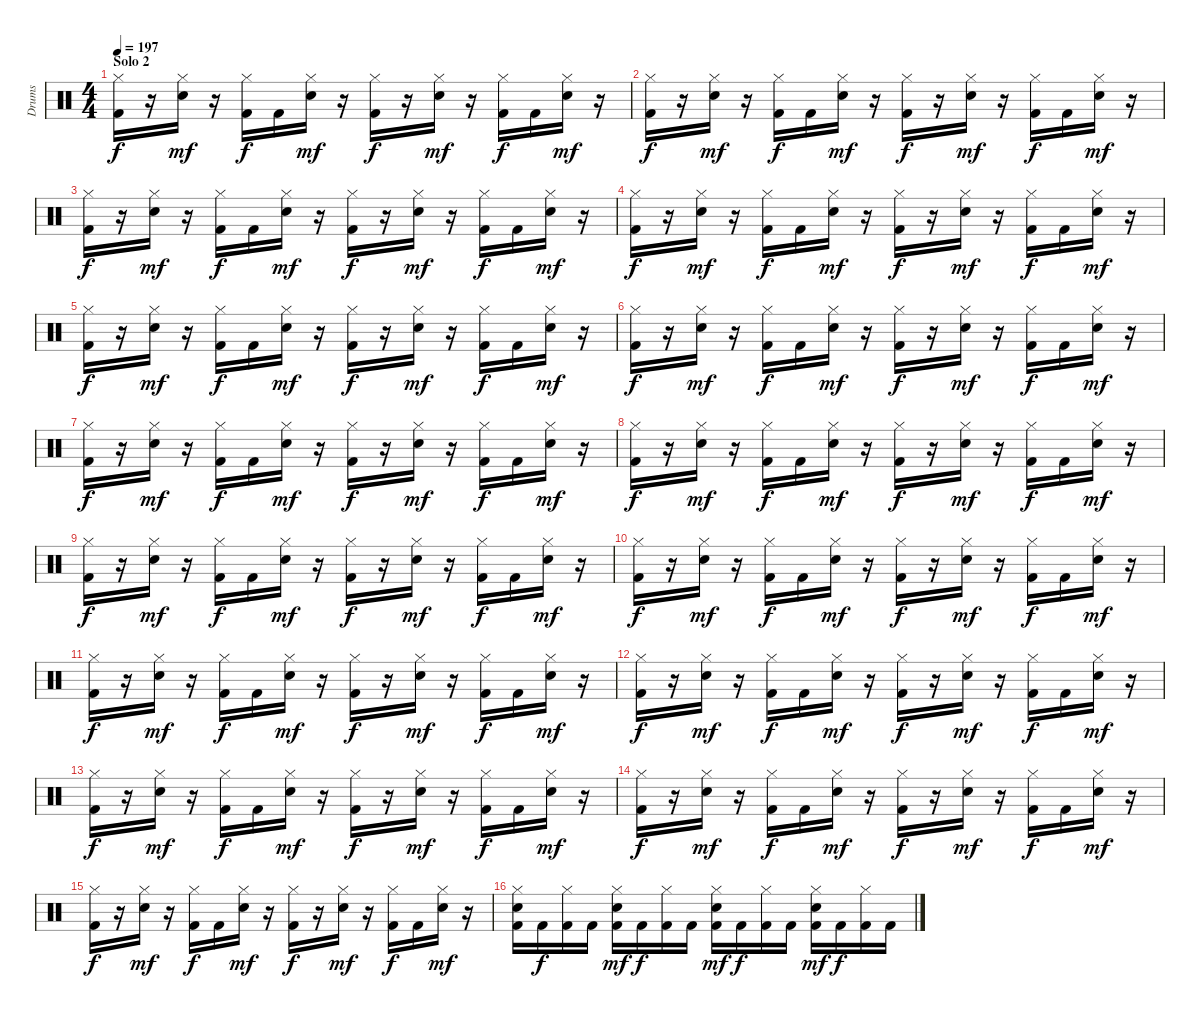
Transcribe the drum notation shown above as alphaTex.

\track ("Drums" "Drums") {instrument percussion}
\staff {score}
\articulation defaults
\ts (4 4)
\section ("" "Solo 2")
\tempo 197
\clef neutral
\ks c
("Kick (hit) 2" "Hi-Hat (closed)").16{dy f} r.16 ("Snare (hit) 2" "Hi-Hat (closed)").16{dy mf} r.16 ("Kick (hit) 2" "Hi-Hat (closed)").16{dy f} "Kick (hit) 2".16 ("Snare (hit) 2" "Hi-Hat (closed)").16{dy mf} r.16 ("Kick (hit) 2" "Hi-Hat (closed)").16{dy f} r.16 ("Snare (hit) 2" "Hi-Hat (closed)").16{dy mf} r.16 ("Kick (hit) 2" "Hi-Hat (closed)").16{dy f} "Kick (hit) 2".16 ("Snare (hit) 2" "Hi-Hat (closed)").16{dy mf} r.16 |
("Kick (hit) 2" "Hi-Hat (closed)").16{dy f} r.16 ("Snare (hit) 2" "Hi-Hat (closed)").16{dy mf} r.16 ("Kick (hit) 2" "Hi-Hat (closed)").16{dy f} "Kick (hit) 2".16 ("Snare (hit) 2" "Hi-Hat (closed)").16{dy mf} r.16 ("Kick (hit) 2" "Hi-Hat (closed)").16{dy f} r.16 ("Snare (hit) 2" "Hi-Hat (closed)").16{dy mf} r.16 ("Kick (hit) 2" "Hi-Hat (closed)").16{dy f} "Kick (hit) 2".16 ("Snare (hit) 2" "Hi-Hat (closed)").16{dy mf} r.16 |
("Kick (hit) 2" "Hi-Hat (closed)").16{dy f} r.16 ("Snare (hit) 2" "Hi-Hat (closed)").16{dy mf} r.16 ("Kick (hit) 2" "Hi-Hat (closed)").16{dy f} "Kick (hit) 2".16 ("Snare (hit) 2" "Hi-Hat (closed)").16{dy mf} r.16 ("Kick (hit) 2" "Hi-Hat (closed)").16{dy f} r.16 ("Snare (hit) 2" "Hi-Hat (closed)").16{dy mf} r.16 ("Kick (hit) 2" "Hi-Hat (closed)").16{dy f} "Kick (hit) 2".16 ("Snare (hit) 2" "Hi-Hat (closed)").16{dy mf} r.16 |
("Kick (hit) 2" "Hi-Hat (closed)").16{dy f} r.16 ("Snare (hit) 2" "Hi-Hat (closed)").16{dy mf} r.16 ("Kick (hit) 2" "Hi-Hat (closed)").16{dy f} "Kick (hit) 2".16 ("Snare (hit) 2" "Hi-Hat (closed)").16{dy mf} r.16 ("Kick (hit) 2" "Hi-Hat (closed)").16{dy f} r.16 ("Snare (hit) 2" "Hi-Hat (closed)").16{dy mf} r.16 ("Kick (hit) 2" "Hi-Hat (closed)").16{dy f} "Kick (hit) 2".16 ("Snare (hit) 2" "Hi-Hat (closed)").16{dy mf} r.16 |
("Kick (hit) 2" "Hi-Hat (closed)").16{dy f} r.16 ("Snare (hit) 2" "Hi-Hat (closed)").16{dy mf} r.16 ("Kick (hit) 2" "Hi-Hat (closed)").16{dy f} "Kick (hit) 2".16 ("Snare (hit) 2" "Hi-Hat (closed)").16{dy mf} r.16 ("Kick (hit) 2" "Hi-Hat (closed)").16{dy f} r.16 ("Snare (hit) 2" "Hi-Hat (closed)").16{dy mf} r.16 ("Kick (hit) 2" "Hi-Hat (closed)").16{dy f} "Kick (hit) 2".16 ("Snare (hit) 2" "Hi-Hat (closed)").16{dy mf} r.16 |
("Kick (hit) 2" "Hi-Hat (closed)").16{dy f} r.16 ("Snare (hit) 2" "Hi-Hat (closed)").16{dy mf} r.16 ("Kick (hit) 2" "Hi-Hat (closed)").16{dy f} "Kick (hit) 2".16 ("Snare (hit) 2" "Hi-Hat (closed)").16{dy mf} r.16 ("Kick (hit) 2" "Hi-Hat (closed)").16{dy f} r.16 ("Snare (hit) 2" "Hi-Hat (closed)").16{dy mf} r.16 ("Kick (hit) 2" "Hi-Hat (closed)").16{dy f} "Kick (hit) 2".16 ("Snare (hit) 2" "Hi-Hat (closed)").16{dy mf} r.16 |
("Kick (hit) 2" "Hi-Hat (closed)").16{dy f} r.16 ("Snare (hit) 2" "Hi-Hat (closed)").16{dy mf} r.16 ("Kick (hit) 2" "Hi-Hat (closed)").16{dy f} "Kick (hit) 2".16 ("Snare (hit) 2" "Hi-Hat (closed)").16{dy mf} r.16 ("Kick (hit) 2" "Hi-Hat (closed)").16{dy f} r.16 ("Snare (hit) 2" "Hi-Hat (closed)").16{dy mf} r.16 ("Kick (hit) 2" "Hi-Hat (closed)").16{dy f} "Kick (hit) 2".16 ("Snare (hit) 2" "Hi-Hat (closed)").16{dy mf} r.16 |
("Kick (hit) 2" "Hi-Hat (closed)").16{dy f} r.16 ("Snare (hit) 2" "Hi-Hat (closed)").16{dy mf} r.16 ("Kick (hit) 2" "Hi-Hat (closed)").16{dy f} "Kick (hit) 2".16 ("Snare (hit) 2" "Hi-Hat (closed)").16{dy mf} r.16 ("Kick (hit) 2" "Hi-Hat (closed)").16{dy f} r.16 ("Snare (hit) 2" "Hi-Hat (closed)").16{dy mf} r.16 ("Kick (hit) 2" "Hi-Hat (closed)").16{dy f} "Kick (hit) 2".16 ("Snare (hit) 2" "Hi-Hat (closed)").16{dy mf} r.16 |
("Kick (hit) 2" "Hi-Hat (closed)").16{dy f} r.16 ("Snare (hit) 2" "Hi-Hat (closed)").16{dy mf} r.16 ("Kick (hit) 2" "Hi-Hat (closed)").16{dy f} "Kick (hit) 2".16 ("Snare (hit) 2" "Hi-Hat (closed)").16{dy mf} r.16 ("Kick (hit) 2" "Hi-Hat (closed)").16{dy f} r.16 ("Snare (hit) 2" "Hi-Hat (closed)").16{dy mf} r.16 ("Kick (hit) 2" "Hi-Hat (closed)").16{dy f} "Kick (hit) 2".16 ("Snare (hit) 2" "Hi-Hat (closed)").16{dy mf} r.16 |
("Kick (hit) 2" "Hi-Hat (closed)").16{dy f} r.16 ("Snare (hit) 2" "Hi-Hat (closed)").16{dy mf} r.16 ("Kick (hit) 2" "Hi-Hat (closed)").16{dy f} "Kick (hit) 2".16 ("Snare (hit) 2" "Hi-Hat (closed)").16{dy mf} r.16 ("Kick (hit) 2" "Hi-Hat (closed)").16{dy f} r.16 ("Snare (hit) 2" "Hi-Hat (closed)").16{dy mf} r.16 ("Kick (hit) 2" "Hi-Hat (closed)").16{dy f} "Kick (hit) 2".16 ("Snare (hit) 2" "Hi-Hat (closed)").16{dy mf} r.16 |
("Kick (hit) 2" "Hi-Hat (closed)").16{dy f} r.16 ("Snare (hit) 2" "Hi-Hat (closed)").16{dy mf} r.16 ("Kick (hit) 2" "Hi-Hat (closed)").16{dy f} "Kick (hit) 2".16 ("Snare (hit) 2" "Hi-Hat (closed)").16{dy mf} r.16 ("Kick (hit) 2" "Hi-Hat (closed)").16{dy f} r.16 ("Snare (hit) 2" "Hi-Hat (closed)").16{dy mf} r.16 ("Kick (hit) 2" "Hi-Hat (closed)").16{dy f} "Kick (hit) 2".16 ("Snare (hit) 2" "Hi-Hat (closed)").16{dy mf} r.16 |
("Kick (hit) 2" "Hi-Hat (closed)").16{dy f} r.16 ("Snare (hit) 2" "Hi-Hat (closed)").16{dy mf} r.16 ("Kick (hit) 2" "Hi-Hat (closed)").16{dy f} "Kick (hit) 2".16 ("Snare (hit) 2" "Hi-Hat (closed)").16{dy mf} r.16 ("Kick (hit) 2" "Hi-Hat (closed)").16{dy f} r.16 ("Snare (hit) 2" "Hi-Hat (closed)").16{dy mf} r.16 ("Kick (hit) 2" "Hi-Hat (closed)").16{dy f} "Kick (hit) 2".16 ("Snare (hit) 2" "Hi-Hat (closed)").16{dy mf} r.16 |
("Kick (hit) 2" "Hi-Hat (closed)").16{dy f} r.16 ("Snare (hit) 2" "Hi-Hat (closed)").16{dy mf} r.16 ("Kick (hit) 2" "Hi-Hat (closed)").16{dy f} "Kick (hit) 2".16 ("Snare (hit) 2" "Hi-Hat (closed)").16{dy mf} r.16 ("Kick (hit) 2" "Hi-Hat (closed)").16{dy f} r.16 ("Snare (hit) 2" "Hi-Hat (closed)").16{dy mf} r.16 ("Kick (hit) 2" "Hi-Hat (closed)").16{dy f} "Kick (hit) 2".16 ("Snare (hit) 2" "Hi-Hat (closed)").16{dy mf} r.16 |
("Kick (hit) 2" "Hi-Hat (closed)").16{dy f} r.16 ("Snare (hit) 2" "Hi-Hat (closed)").16{dy mf} r.16 ("Kick (hit) 2" "Hi-Hat (closed)").16{dy f} "Kick (hit) 2".16 ("Snare (hit) 2" "Hi-Hat (closed)").16{dy mf} r.16 ("Kick (hit) 2" "Hi-Hat (closed)").16{dy f} r.16 ("Snare (hit) 2" "Hi-Hat (closed)").16{dy mf} r.16 ("Kick (hit) 2" "Hi-Hat (closed)").16{dy f} "Kick (hit) 2".16 ("Snare (hit) 2" "Hi-Hat (closed)").16{dy mf} r.16 |
("Kick (hit) 2" "Hi-Hat (closed)").16{dy f} r.16 ("Snare (hit) 2" "Hi-Hat (closed)").16{dy mf} r.16 ("Kick (hit) 2" "Hi-Hat (closed)").16{dy f} "Kick (hit) 2".16 ("Snare (hit) 2" "Hi-Hat (closed)").16{dy mf} r.16 ("Kick (hit) 2" "Hi-Hat (closed)").16{dy f} r.16 ("Snare (hit) 2" "Hi-Hat (closed)").16{dy mf} r.16 ("Kick (hit) 2" "Hi-Hat (closed)").16{dy f} "Kick (hit) 2".16 ("Snare (hit) 2" "Hi-Hat (closed)").16{dy mf} r.16 |
("Kick (hit) 2" "Snare (hit) 2" "Hi-Hat (closed)").16 "Kick (hit) 2".16{dy f} ("Kick (hit) 2" "Hi-Hat (closed)").16 "Kick (hit) 2".16 ("Kick (hit) 2" "Snare (hit) 2" "Hi-Hat (closed)").16{dy mf} "Kick (hit) 2".16{dy f} ("Kick (hit) 2" "Hi-Hat (closed)").16 "Kick (hit) 2".16 ("Kick (hit) 2" "Snare (hit) 2" "Hi-Hat (closed)").16{dy mf} "Kick (hit) 2".16{dy f} ("Kick (hit) 2" "Hi-Hat (closed)").16 "Kick (hit) 2".16 ("Kick (hit) 2" "Snare (hit) 2" "Hi-Hat (closed)").16{dy mf} "Kick (hit) 2".16{dy f} ("Kick (hit) 2" "Hi-Hat (closed)").16 "Kick (hit) 2".16
